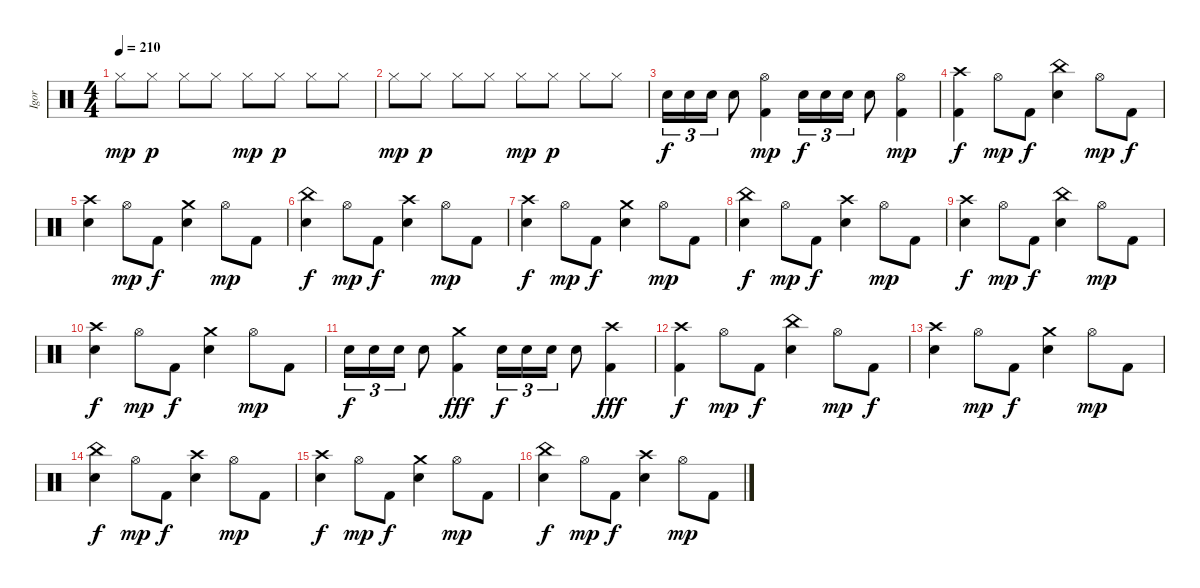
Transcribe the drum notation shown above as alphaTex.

\track ("Igor" "Igor") {instrument percussion}
\staff {score}
\articulation defaults
\ts (4 4)
\tempo 210
\clef neutral
\ks c "Hi-Hat (closed)".8{dy mp} "Hi-Hat (closed)".8{dy p} "Hi-Hat (closed)".8 "Hi-Hat (closed)".8 "Hi-Hat (closed)".8{dy mp} "Hi-Hat (closed)".8{dy p} "Hi-Hat (closed)".8 "Hi-Hat (closed)".8
|
"Hi-Hat (closed)".8{dy mp} "Hi-Hat (closed)".8{dy p} "Hi-Hat (closed)".8 "Hi-Hat (closed)".8 "Hi-Hat (closed)".8{dy mp} "Hi-Hat (closed)".8{dy p} "Hi-Hat (closed)".8 "Hi-Hat (closed)".8 |
"Electric Snare (hit)".16{tu (3 2) dy f} "Electric Snare (hit)".16{tu (3 2)} "Electric Snare (hit)".16{tu (3 2)} "Electric Snare (hit)".8 ("Hi-Hat (open)" "Kick (hit) 2").4{dy mp} "Electric Snare (hit)".16{tu (3 2) dy f} "Electric Snare (hit)".16{tu (3 2)} "Electric Snare (hit)".16{tu (3 2)} "Electric Snare (hit)".8 ("Hi-Hat (open)" "Kick (hit) 2").4{dy mp} |
("Crash high (hit)" "Kick (hit) 2").4{dy f} "Hi-Hat (open)".8{dy mp} "Kick (hit) 2".8{dy f} ("China (hit)" "Electric Snare (hit)").4 "Hi-Hat (open)".8{dy mp} "Kick (hit) 2".8{dy f} |
("Crash high (hit)" "Electric Snare (hit)").4 "Hi-Hat (open)".8{dy mp} "Kick (hit) 2".8{dy f} ("Crash medium (hit)" "Electric Snare (hit)").4 "Hi-Hat (open)".8{dy mp} "Kick (hit) 2".8 |
("China (hit)" "Electric Snare (hit)").4{dy f} "Hi-Hat (open)".8{dy mp} "Kick (hit) 2".8{dy f} ("Crash high (hit)" "Electric Snare (hit)").4 "Hi-Hat (open)".8{dy mp} "Kick (hit) 2".8 |
("Crash high (hit)" "Electric Snare (hit)").4{dy f} "Hi-Hat (open)".8{dy mp} "Kick (hit) 2".8{dy f} ("Crash medium (hit)" "Electric Snare (hit)").4 "Hi-Hat (open)".8{dy mp} "Kick (hit) 2".8 |
("China (hit)" "Electric Snare (hit)").4{dy f} "Hi-Hat (open)".8{dy mp} "Kick (hit) 2".8{dy f} ("Crash high (hit)" "Electric Snare (hit)").4 "Hi-Hat (open)".8{dy mp} "Kick (hit) 2".8 |
("Crash high (hit)" "Electric Snare (hit)").4{dy f} "Hi-Hat (open)".8{dy mp} "Kick (hit) 2".8{dy f} ("China (hit)" "Electric Snare (hit)").4 "Hi-Hat (open)".8{dy mp} "Kick (hit) 2".8 |
("Crash high (hit)" "Electric Snare (hit)").4{dy f} "Hi-Hat (open)".8{dy mp} "Kick (hit) 2".8{dy f} ("Crash medium (hit)" "Electric Snare (hit)").4 "Hi-Hat (open)".8{dy mp} "Kick (hit) 2".8 |
"Electric Snare (hit)".16{tu (3 2) dy f} "Electric Snare (hit)".16{tu (3 2)} "Electric Snare (hit)".16{tu (3 2)} "Electric Snare (hit)".8 ("Crash medium (hit)" "Kick (hit) 2").4{dy fff} "Electric Snare (hit)".16{tu (3 2) dy f} "Electric Snare (hit)".16{tu (3 2)} "Electric Snare (hit)".16{tu (3 2)} "Electric Snare (hit)".8 ("Crash high (hit)" "Kick (hit) 2").4{dy fff} |
("Crash high (hit)" "Kick (hit) 2").4{dy f} "Hi-Hat (open)".8{dy mp} "Kick (hit) 2".8{dy f} ("China (hit)" "Electric Snare (hit)").4 "Hi-Hat (open)".8{dy mp} "Kick (hit) 2".8{dy f} |
("Crash high (hit)" "Electric Snare (hit)").4 "Hi-Hat (open)".8{dy mp} "Kick (hit) 2".8{dy f} ("Crash medium (hit)" "Electric Snare (hit)").4 "Hi-Hat (open)".8{dy mp} "Kick (hit) 2".8 |
("China (hit)" "Electric Snare (hit)").4{dy f} "Hi-Hat (open)".8{dy mp} "Kick (hit) 2".8{dy f} ("Crash high (hit)" "Electric Snare (hit)").4 "Hi-Hat (open)".8{dy mp} "Kick (hit) 2".8 |
("Crash high (hit)" "Electric Snare (hit)").4{dy f} "Hi-Hat (open)".8{dy mp} "Kick (hit) 2".8{dy f} ("Crash medium (hit)" "Electric Snare (hit)").4 "Hi-Hat (open)".8{dy mp} "Kick (hit) 2".8 |
("China (hit)" "Electric Snare (hit)").4{dy f} "Hi-Hat (open)".8{dy mp} "Kick (hit) 2".8{dy f} ("Crash high (hit)" "Electric Snare (hit)").4 "Hi-Hat (open)".8{dy mp} "Kick (hit) 2".8
